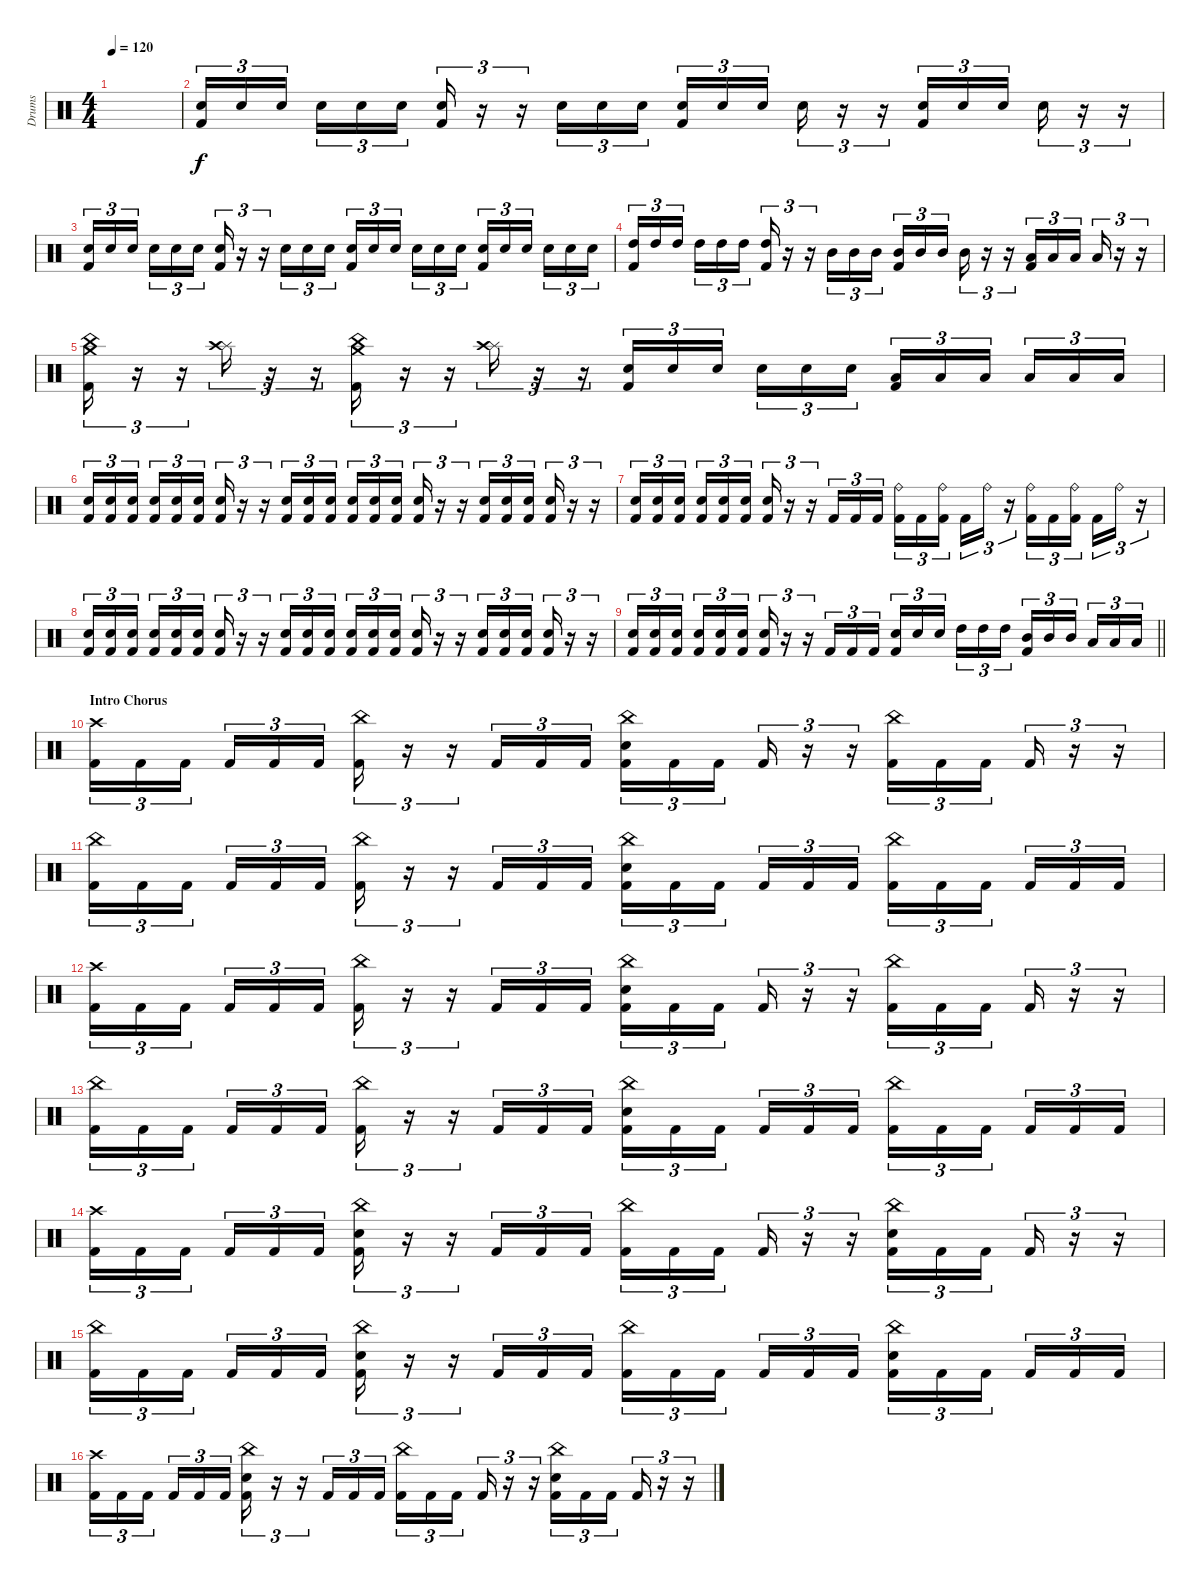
\track ("Drums" "Drums") {instrument percussion}
\staff {score}
\articulation defaults
\ts (4 4)
\tempo 120
\clef neutral
\ks c
|
("Snare (hit) 2" "Kick (hit) 2").16{tu (3 2)} "Snare (hit) 2".16{tu (3 2)} "Snare (hit) 2".16{tu (3 2) beam splitsecondary} "Snare (hit) 2".16{tu (3 2)} "Snare (hit) 2".16{tu (3 2)} "Snare (hit) 2".16{tu (3 2)} ("Snare (hit) 2" "Kick (hit) 2").16{tu (3 2)} r.16{tu (3 2)} r.16{tu (3 2)} "Snare (hit) 2".16{tu (3 2)} "Snare (hit) 2".16{tu (3 2)} "Snare (hit) 2".16{tu (3 2)} ("Snare (hit) 2" "Kick (hit) 2").16{tu (3 2)} "Snare (hit) 2".16{tu (3 2)} "Snare (hit) 2".16{tu (3 2) beam splitsecondary} "Snare (hit) 2".16{tu (3 2)} r.16{tu (3 2)} r.16{tu (3 2)} ("Snare (hit) 2" "Kick (hit) 2").16{tu (3 2)} "Snare (hit) 2".16{tu (3 2)} "Snare (hit) 2".16{tu (3 2) beam splitsecondary} "Snare (hit) 2".16{tu (3 2)} r.16{tu (3 2)} r.16{tu (3 2)} |
("Snare (hit) 2" "Kick (hit) 2").16{tu (3 2)} "Snare (hit) 2".16{tu (3 2)} "Snare (hit) 2".16{tu (3 2) beam splitsecondary} "Snare (hit) 2".16{tu (3 2)} "Snare (hit) 2".16{tu (3 2)} "Snare (hit) 2".16{tu (3 2)} ("Snare (hit) 2" "Kick (hit) 2").16{tu (3 2)} r.16{tu (3 2)} r.16{tu (3 2)} "Snare (hit) 2".16{tu (3 2)} "Snare (hit) 2".16{tu (3 2)} "Snare (hit) 2".16{tu (3 2)} ("Snare (hit) 2" "Kick (hit) 2").16{tu (3 2)} "Snare (hit) 2".16{tu (3 2)} "Snare (hit) 2".16{tu (3 2) beam splitsecondary} "Snare (hit) 2".16{tu (3 2)} "Snare (hit) 2".16{tu (3 2)} "Snare (hit) 2".16{tu (3 2)} ("Snare (hit) 2" "Kick (hit) 2").16{tu (3 2)} "Snare (hit) 2".16{tu (3 2)} "Snare (hit) 2".16{tu (3 2) beam splitsecondary} "Snare (hit) 2".16{tu (3 2)} "Snare (hit) 2".16{tu (3 2)} "Snare (hit) 2".16{tu (3 2)} |
("High Tom (hit)" "Kick (hit) 2").16{tu (3 2)} "High Tom (hit)".16{tu (3 2)} "High Tom (hit)".16{tu (3 2) beam splitsecondary} "High Tom (hit)".16{tu (3 2)} "High Tom (hit)".16{tu (3 2)} "High Tom (hit)".16{tu (3 2)} ("High Tom (hit)" "Kick (hit) 2").16{tu (3 2)} r.16{tu (3 2)} r.16{tu (3 2)} "Mid Tom (hit)".16{tu (3 2)} "Mid Tom (hit)".16{tu (3 2)} "Mid Tom (hit)".16{tu (3 2)} ("Mid Tom (hit)" "Kick (hit) 2").16{tu (3 2)} "Mid Tom (hit)".16{tu (3 2)} "Mid Tom (hit)".16{tu (3 2) beam splitsecondary} "Mid Tom (hit)".16{tu (3 2)} r.16{tu (3 2)} r.16{tu (3 2)} ("Low Tom (hit)" "Kick (hit) 2").16{tu (3 2)} "Low Tom (hit)".16{tu (3 2)} "Low Tom (hit)".16{tu (3 2) beam splitsecondary} "Low Tom (hit)".16{tu (3 2)} r.16{tu (3 2)} r.16{tu (3 2)} |
("China (hit)" "Crash medium (hit)" "Kick (hit) 2").16{tu (3 2)} r.16{tu (3 2)} r.16{tu (3 2)} ("Splash (hit)" "Crash high (hit)").16{tu (3 2)} r.16{tu (3 2)} r.16{tu (3 2)} ("China (hit)" "Crash medium (hit)" "Kick (hit) 2").16{tu (3 2)} r.16{tu (3 2)} r.16{tu (3 2)} ("Splash (hit)" "Crash high (hit)").16{tu (3 2)} r.16{tu (3 2)} r.16{tu (3 2)} ("Snare (hit) 2" "Kick (hit) 2").16{tu (3 2)} "Snare (hit) 2".16{tu (3 2)} "Snare (hit) 2".16{tu (3 2) beam splitsecondary} "Snare (hit) 2".16{tu (3 2)} "Snare (hit) 2".16{tu (3 2)} "Snare (hit) 2".16{tu (3 2)} ("Low Tom (hit)" "Kick (hit) 2").16{tu (3 2)} "Low Tom (hit)".16{tu (3 2)} "Low Tom (hit)".16{tu (3 2) beam splitsecondary} "Low Tom (hit)".16{tu (3 2)} "Low Tom (hit)".16{tu (3 2)} "Low Tom (hit)".16{tu (3 2)} |
("Snare (hit) 2" "Kick (hit) 2").16{tu (3 2)} ("Snare (hit) 2" "Kick (hit) 2").16{tu (3 2)} ("Snare (hit) 2" "Kick (hit) 2").16{tu (3 2) beam splitsecondary} ("Snare (hit) 2" "Kick (hit) 2").16{tu (3 2)} ("Snare (hit) 2" "Kick (hit) 2").16{tu (3 2)} ("Snare (hit) 2" "Kick (hit) 2").16{tu (3 2)} ("Snare (hit) 2" "Kick (hit) 2").16{tu (3 2)} r.16{tu (3 2)} r.16{tu (3 2)} ("Snare (hit) 2" "Kick (hit) 2").16{tu (3 2)} ("Snare (hit) 2" "Kick (hit) 2").16{tu (3 2)} ("Snare (hit) 2" "Kick (hit) 2").16{tu (3 2)} ("Snare (hit) 2" "Kick (hit) 2").16{tu (3 2)} ("Snare (hit) 2" "Kick (hit) 2").16{tu (3 2)} ("Snare (hit) 2" "Kick (hit) 2").16{tu (3 2) beam splitsecondary} ("Snare (hit) 2" "Kick (hit) 2").16{tu (3 2)} r.16{tu (3 2)} r.16{tu (3 2)} ("Snare (hit) 2" "Kick (hit) 2").16{tu (3 2)} ("Snare (hit) 2" "Kick (hit) 2").16{tu (3 2)} ("Snare (hit) 2" "Kick (hit) 2").16{tu (3 2) beam splitsecondary} ("Snare (hit) 2" "Kick (hit) 2").16{tu (3 2)} r.16{tu (3 2)} r.16{tu (3 2)} |
("Snare (hit) 2" "Kick (hit) 2").16{tu (3 2)} ("Snare (hit) 2" "Kick (hit) 2").16{tu (3 2)} ("Snare (hit) 2" "Kick (hit) 2").16{tu (3 2) beam splitsecondary} ("Snare (hit) 2" "Kick (hit) 2").16{tu (3 2)} ("Snare (hit) 2" "Kick (hit) 2").16{tu (3 2)} ("Snare (hit) 2" "Kick (hit) 2").16{tu (3 2)} ("Snare (hit) 2" "Kick (hit) 2").16{tu (3 2)} r.16{tu (3 2)} r.16{tu (3 2)} "Kick (hit) 2".16{tu (3 2)} "Kick (hit) 2".16{tu (3 2)} "Kick (hit) 2".16{tu (3 2)} ("Ride (bell)" "Kick (hit) 2").16{tu (3 2)} "Kick (hit) 2".16{tu (3 2)} ("Ride (bell)" "Kick (hit) 2").16{tu (3 2) beam splitsecondary} "Kick (hit) 2".16{tu (3 2)} "Ride (bell)".16{tu (3 2)} r.16{tu (3 2)} ("Ride (bell)" "Kick (hit) 2").16{tu (3 2)} "Kick (hit) 2".16{tu (3 2)} ("Ride (bell)" "Kick (hit) 2").16{tu (3 2) beam splitsecondary} "Kick (hit) 2".16{tu (3 2)} "Ride (bell)".16{tu (3 2)} r.16{tu (3 2)} |
("Snare (hit) 2" "Kick (hit) 2").16{tu (3 2)} ("Snare (hit) 2" "Kick (hit) 2").16{tu (3 2)} ("Snare (hit) 2" "Kick (hit) 2").16{tu (3 2) beam splitsecondary} ("Snare (hit) 2" "Kick (hit) 2").16{tu (3 2)} ("Snare (hit) 2" "Kick (hit) 2").16{tu (3 2)} ("Snare (hit) 2" "Kick (hit) 2").16{tu (3 2)} ("Snare (hit) 2" "Kick (hit) 2").16{tu (3 2)} r.16{tu (3 2)} r.16{tu (3 2)} ("Snare (hit) 2" "Kick (hit) 2").16{tu (3 2)} ("Snare (hit) 2" "Kick (hit) 2").16{tu (3 2)} ("Snare (hit) 2" "Kick (hit) 2").16{tu (3 2)} ("Snare (hit) 2" "Kick (hit) 2").16{tu (3 2)} ("Snare (hit) 2" "Kick (hit) 2").16{tu (3 2)} ("Snare (hit) 2" "Kick (hit) 2").16{tu (3 2) beam splitsecondary} ("Snare (hit) 2" "Kick (hit) 2").16{tu (3 2)} r.16{tu (3 2)} r.16{tu (3 2)} ("Snare (hit) 2" "Kick (hit) 2").16{tu (3 2)} ("Snare (hit) 2" "Kick (hit) 2").16{tu (3 2)} ("Snare (hit) 2" "Kick (hit) 2").16{tu (3 2) beam splitsecondary} ("Snare (hit) 2" "Kick (hit) 2").16{tu (3 2)} r.16{tu (3 2)} r.16{tu (3 2)} |
\barLineRight lightlight
("Snare (hit) 2" "Kick (hit) 2").16{tu (3 2)} ("Snare (hit) 2" "Kick (hit) 2").16{tu (3 2)} ("Snare (hit) 2" "Kick (hit) 2").16{tu (3 2) beam splitsecondary} ("Snare (hit) 2" "Kick (hit) 2").16{tu (3 2)} ("Snare (hit) 2" "Kick (hit) 2").16{tu (3 2)} ("Snare (hit) 2" "Kick (hit) 2").16{tu (3 2)} ("Snare (hit) 2" "Kick (hit) 2").16{tu (3 2)} r.16{tu (3 2)} r.16{tu (3 2)} "Kick (hit) 2".16{tu (3 2)} "Kick (hit) 2".16{tu (3 2)} "Kick (hit) 2".16{tu (3 2)} ("Snare (hit) 2" "Kick (hit) 2").16{tu (3 2)} "Snare (hit) 2".16{tu (3 2)} "Snare (hit) 2".16{tu (3 2) beam splitsecondary} "High Tom (hit)".16{tu (3 2)} "High Tom (hit)".16{tu (3 2)} "High Tom (hit)".16{tu (3 2)} ("Mid Tom (hit)" "Kick (hit) 2").16{tu (3 2)} "Mid Tom (hit)".16{tu (3 2)} "Mid Tom (hit)".16{tu (3 2) beam splitsecondary} "Low Tom (hit)".16{tu (3 2)} "Low Tom (hit)".16{tu (3 2)} "Low Tom (hit)".16{tu (3 2)} |
\section ("" "Intro Chorus")
("Crash high (hit)" "Kick (hit) 2").16{tu (3 2)} "Kick (hit) 2".16{tu (3 2)} "Kick (hit) 2".16{tu (3 2) beam splitsecondary} "Kick (hit) 2".16{tu (3 2)} "Kick (hit) 2".16{tu (3 2)} "Kick (hit) 2".16{tu (3 2)} ("China (hit)" "Kick (hit) 2").16{tu (3 2)} r.16{tu (3 2)} r.16{tu (3 2)} "Kick (hit) 2".16{tu (3 2)} "Kick (hit) 2".16{tu (3 2)} "Kick (hit) 2".16{tu (3 2)} ("China (hit)" "Snare (hit) 2" "Kick (hit) 2").16{tu (3 2)} "Kick (hit) 2".16{tu (3 2)} "Kick (hit) 2".16{tu (3 2) beam splitsecondary} "Kick (hit) 2".16{tu (3 2)} r.16{tu (3 2)} r.16{tu (3 2)} ("China (hit)" "Kick (hit) 2").16{tu (3 2)} "Kick (hit) 2".16{tu (3 2)} "Kick (hit) 2".16{tu (3 2) beam splitsecondary} "Kick (hit) 2".16{tu (3 2)} r.16{tu (3 2)} r.16{tu (3 2)} |
("China (hit)" "Kick (hit) 2").16{tu (3 2)} "Kick (hit) 2".16{tu (3 2)} "Kick (hit) 2".16{tu (3 2) beam splitsecondary} "Kick (hit) 2".16{tu (3 2)} "Kick (hit) 2".16{tu (3 2)} "Kick (hit) 2".16{tu (3 2)} ("China (hit)" "Kick (hit) 2").16{tu (3 2)} r.16{tu (3 2)} r.16{tu (3 2)} "Kick (hit) 2".16{tu (3 2)} "Kick (hit) 2".16{tu (3 2)} "Kick (hit) 2".16{tu (3 2)} ("China (hit)" "Snare (hit) 2" "Kick (hit) 2").16{tu (3 2)} "Kick (hit) 2".16{tu (3 2)} "Kick (hit) 2".16{tu (3 2) beam splitsecondary} "Kick (hit) 2".16{tu (3 2)} "Kick (hit) 2".16{tu (3 2)} "Kick (hit) 2".16{tu (3 2)} ("China (hit)" "Kick (hit) 2").16{tu (3 2)} "Kick (hit) 2".16{tu (3 2)} "Kick (hit) 2".16{tu (3 2) beam splitsecondary} "Kick (hit) 2".16{tu (3 2)} "Kick (hit) 2".16{tu (3 2)} "Kick (hit) 2".16{tu (3 2)} |
("Crash high (hit)" "Kick (hit) 2").16{tu (3 2)} "Kick (hit) 2".16{tu (3 2)} "Kick (hit) 2".16{tu (3 2) beam splitsecondary} "Kick (hit) 2".16{tu (3 2)} "Kick (hit) 2".16{tu (3 2)} "Kick (hit) 2".16{tu (3 2)} ("China (hit)" "Kick (hit) 2").16{tu (3 2)} r.16{tu (3 2)} r.16{tu (3 2)} "Kick (hit) 2".16{tu (3 2)} "Kick (hit) 2".16{tu (3 2)} "Kick (hit) 2".16{tu (3 2)} ("China (hit)" "Snare (hit) 2" "Kick (hit) 2").16{tu (3 2)} "Kick (hit) 2".16{tu (3 2)} "Kick (hit) 2".16{tu (3 2) beam splitsecondary} "Kick (hit) 2".16{tu (3 2)} r.16{tu (3 2)} r.16{tu (3 2)} ("China (hit)" "Kick (hit) 2").16{tu (3 2)} "Kick (hit) 2".16{tu (3 2)} "Kick (hit) 2".16{tu (3 2) beam splitsecondary} "Kick (hit) 2".16{tu (3 2)} r.16{tu (3 2)} r.16{tu (3 2)} |
("China (hit)" "Kick (hit) 2").16{tu (3 2)} "Kick (hit) 2".16{tu (3 2)} "Kick (hit) 2".16{tu (3 2) beam splitsecondary} "Kick (hit) 2".16{tu (3 2)} "Kick (hit) 2".16{tu (3 2)} "Kick (hit) 2".16{tu (3 2)} ("China (hit)" "Kick (hit) 2").16{tu (3 2)} r.16{tu (3 2)} r.16{tu (3 2)} "Kick (hit) 2".16{tu (3 2)} "Kick (hit) 2".16{tu (3 2)} "Kick (hit) 2".16{tu (3 2)} ("China (hit)" "Snare (hit) 2" "Kick (hit) 2").16{tu (3 2)} "Kick (hit) 2".16{tu (3 2)} "Kick (hit) 2".16{tu (3 2) beam splitsecondary} "Kick (hit) 2".16{tu (3 2)} "Kick (hit) 2".16{tu (3 2)} "Kick (hit) 2".16{tu (3 2)} ("China (hit)" "Kick (hit) 2").16{tu (3 2)} "Kick (hit) 2".16{tu (3 2)} "Kick (hit) 2".16{tu (3 2) beam splitsecondary} "Kick (hit) 2".16{tu (3 2)} "Kick (hit) 2".16{tu (3 2)} "Kick (hit) 2".16{tu (3 2)} |
("Crash high (hit)" "Kick (hit) 2").16{tu (3 2)} "Kick (hit) 2".16{tu (3 2)} "Kick (hit) 2".16{tu (3 2) beam splitsecondary} "Kick (hit) 2".16{tu (3 2)} "Kick (hit) 2".16{tu (3 2)} "Kick (hit) 2".16{tu (3 2)} ("China (hit)" "Snare (hit) 2" "Kick (hit) 2").16{tu (3 2)} r.16{tu (3 2)} r.16{tu (3 2)} "Kick (hit) 2".16{tu (3 2)} "Kick (hit) 2".16{tu (3 2)} "Kick (hit) 2".16{tu (3 2)} ("China (hit)" "Kick (hit) 2").16{tu (3 2)} "Kick (hit) 2".16{tu (3 2)} "Kick (hit) 2".16{tu (3 2) beam splitsecondary} "Kick (hit) 2".16{tu (3 2)} r.16{tu (3 2)} r.16{tu (3 2)} ("China (hit)" "Snare (hit) 2" "Kick (hit) 2").16{tu (3 2)} "Kick (hit) 2".16{tu (3 2)} "Kick (hit) 2".16{tu (3 2) beam splitsecondary} "Kick (hit) 2".16{tu (3 2)} r.16{tu (3 2)} r.16{tu (3 2)} |
("China (hit)" "Kick (hit) 2").16{tu (3 2)} "Kick (hit) 2".16{tu (3 2)} "Kick (hit) 2".16{tu (3 2) beam splitsecondary} "Kick (hit) 2".16{tu (3 2)} "Kick (hit) 2".16{tu (3 2)} "Kick (hit) 2".16{tu (3 2)} ("China (hit)" "Snare (hit) 2" "Kick (hit) 2").16{tu (3 2)} r.16{tu (3 2)} r.16{tu (3 2)} "Kick (hit) 2".16{tu (3 2)} "Kick (hit) 2".16{tu (3 2)} "Kick (hit) 2".16{tu (3 2)} ("China (hit)" "Kick (hit) 2").16{tu (3 2)} "Kick (hit) 2".16{tu (3 2)} "Kick (hit) 2".16{tu (3 2) beam splitsecondary} "Kick (hit) 2".16{tu (3 2)} "Kick (hit) 2".16{tu (3 2)} "Kick (hit) 2".16{tu (3 2)} ("China (hit)" "Snare (hit) 2" "Kick (hit) 2").16{tu (3 2)} "Kick (hit) 2".16{tu (3 2)} "Kick (hit) 2".16{tu (3 2) beam splitsecondary} "Kick (hit) 2".16{tu (3 2)} "Kick (hit) 2".16{tu (3 2)} "Kick (hit) 2".16{tu (3 2)} |
("Crash high (hit)" "Kick (hit) 2").16{tu (3 2)} "Kick (hit) 2".16{tu (3 2)} "Kick (hit) 2".16{tu (3 2) beam splitsecondary} "Kick (hit) 2".16{tu (3 2)} "Kick (hit) 2".16{tu (3 2)} "Kick (hit) 2".16{tu (3 2)} ("China (hit)" "Snare (hit) 2" "Kick (hit) 2").16{tu (3 2)} r.16{tu (3 2)} r.16{tu (3 2)} "Kick (hit) 2".16{tu (3 2)} "Kick (hit) 2".16{tu (3 2)} "Kick (hit) 2".16{tu (3 2)} ("China (hit)" "Kick (hit) 2").16{tu (3 2)} "Kick (hit) 2".16{tu (3 2)} "Kick (hit) 2".16{tu (3 2) beam splitsecondary} "Kick (hit) 2".16{tu (3 2)} r.16{tu (3 2)} r.16{tu (3 2)} ("China (hit)" "Snare (hit) 2" "Kick (hit) 2").16{tu (3 2)} "Kick (hit) 2".16{tu (3 2)} "Kick (hit) 2".16{tu (3 2) beam splitsecondary} "Kick (hit) 2".16{tu (3 2)} r.16{tu (3 2)} r.16{tu (3 2)}
